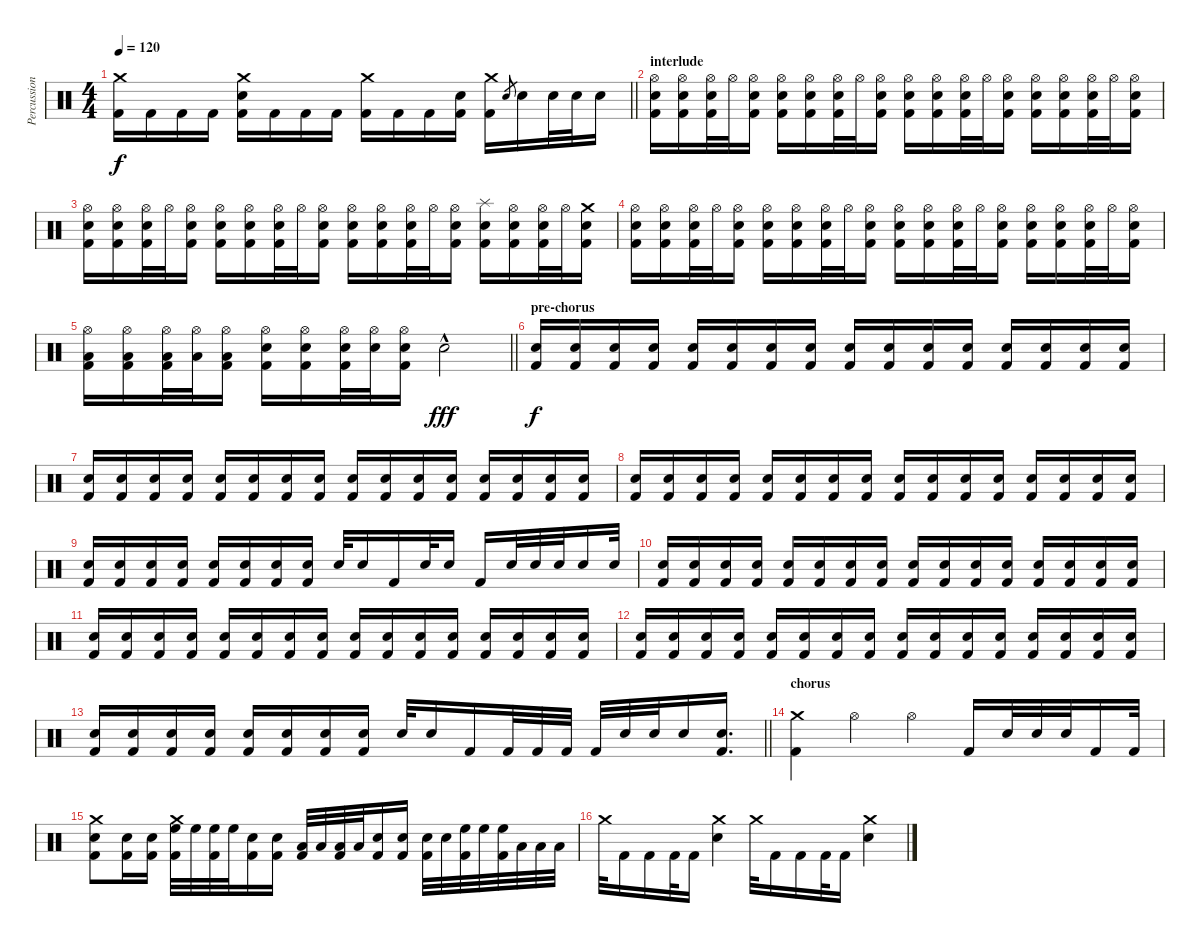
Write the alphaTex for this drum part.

\track ("Percussion" "Percussion") {instrument percussion}
\staff {score}
\articulation defaults
\ts (4 4)
\tempo 120
\clef neutral
\barLineRight lightlight
\ks c
("Crash medium (hit)" "Kick (hit) 2").16{dy f} "Kick (hit) 2".16 "Kick (hit) 2".16 "Kick (hit) 2".16 ("Crash medium (hit)" "Snare (hit) 2" "Kick (hit) 2").16 "Kick (hit) 2".16 "Kick (hit) 2".16 "Kick (hit) 2".16 ("Crash medium (hit)" "Kick (hit) 2").16 "Kick (hit) 2".16 "Kick (hit) 2".16 ("Snare (hit) 2" "Kick (hit) 2").16 ("Crash medium (hit)" "Kick (hit) 2").16 "Snare (hit) 2".8{gr} "Snare (hit) 2".16 "Snare (hit) 2".32 "Snare (hit) 2".32 "Snare (hit) 2".16 |
\section ("" "interlude")
("Hi-Hat (open)" "Snare (hit) 2" "Kick (hit) 2").16 ("Hi-Hat (open)" "Snare (hit) 2" "Kick (hit) 2").16 ("Hi-Hat (open)" "Snare (hit) 2" "Kick (hit) 2").32 "Hi-Hat (open)".32 ("Hi-Hat (open)" "Snare (hit) 2" "Kick (hit) 2").16 ("Hi-Hat (open)" "Snare (hit) 2" "Kick (hit) 2").16 ("Hi-Hat (open)" "Snare (hit) 2" "Kick (hit) 2").16 ("Hi-Hat (open)" "Snare (hit) 2" "Kick (hit) 2").32 "Hi-Hat (open)".32 ("Hi-Hat (open)" "Snare (hit) 2" "Kick (hit) 2").16 ("Hi-Hat (open)" "Snare (hit) 2" "Kick (hit) 2").16 ("Hi-Hat (open)" "Snare (hit) 2" "Kick (hit) 2").16 ("Hi-Hat (open)" "Snare (hit) 2" "Kick (hit) 2").32 "Hi-Hat (open)".32 ("Hi-Hat (open)" "Snare (hit) 2" "Kick (hit) 2").16 ("Hi-Hat (open)" "Snare (hit) 2" "Kick (hit) 2").16 ("Hi-Hat (open)" "Snare (hit) 2" "Kick (hit) 2").16 ("Hi-Hat (open)" "Snare (hit) 2" "Kick (hit) 2").32 "Hi-Hat (open)".32 ("Hi-Hat (open)" "Snare (hit) 2" "Kick (hit) 2").16 |
("Hi-Hat (open)" "Snare (hit) 2" "Kick (hit) 2").16 ("Hi-Hat (open)" "Snare (hit) 2" "Kick (hit) 2").16 ("Hi-Hat (open)" "Snare (hit) 2" "Kick (hit) 2").32 "Hi-Hat (open)".32 ("Hi-Hat (open)" "Snare (hit) 2" "Kick (hit) 2").16 ("Hi-Hat (open)" "Snare (hit) 2" "Kick (hit) 2").16 ("Hi-Hat (open)" "Snare (hit) 2" "Kick (hit) 2").16 ("Hi-Hat (open)" "Snare (hit) 2" "Kick (hit) 2").32 "Hi-Hat (open)".32 ("Hi-Hat (open)" "Snare (hit) 2" "Kick (hit) 2").16 ("Hi-Hat (open)" "Snare (hit) 2" "Kick (hit) 2").16 ("Hi-Hat (open)" "Snare (hit) 2" "Kick (hit) 2").16 ("Hi-Hat (open)" "Snare (hit) 2" "Kick (hit) 2").32 "Hi-Hat (open)".32 ("Hi-Hat (open)" "Snare (hit) 2" "Kick (hit) 2").16 ("Splash (hit)" "Snare (hit) 2" "Kick (hit) 2").16 ("Hi-Hat (open)" "Snare (hit) 2" "Kick (hit) 2").16 ("Hi-Hat (open)" "Snare (hit) 2" "Kick (hit) 2").32 "Hi-Hat (open)".32 ("Crash medium (hit)" "Snare (hit) 2" "Kick (hit) 2").16 |
("Hi-Hat (open)" "Snare (hit) 2" "Kick (hit) 2").16 ("Hi-Hat (open)" "Snare (hit) 2" "Kick (hit) 2").16 ("Hi-Hat (open)" "Snare (hit) 2" "Kick (hit) 2").32 "Hi-Hat (open)".32 ("Hi-Hat (open)" "Snare (hit) 2" "Kick (hit) 2").16 ("Hi-Hat (open)" "Snare (hit) 2" "Kick (hit) 2").16 ("Hi-Hat (open)" "Snare (hit) 2" "Kick (hit) 2").16 ("Hi-Hat (open)" "Snare (hit) 2" "Kick (hit) 2").32 "Hi-Hat (open)".32 ("Hi-Hat (open)" "Snare (hit) 2" "Kick (hit) 2").16 ("Hi-Hat (open)" "Snare (hit) 2" "Kick (hit) 2").16 ("Hi-Hat (open)" "Snare (hit) 2" "Kick (hit) 2").16 ("Hi-Hat (open)" "Snare (hit) 2" "Kick (hit) 2").32 "Hi-Hat (open)".32 ("Hi-Hat (open)" "Snare (hit) 2" "Kick (hit) 2").16 ("Hi-Hat (open)" "Snare (hit) 2" "Kick (hit) 2").16 ("Hi-Hat (open)" "Snare (hit) 2" "Kick (hit) 2").16 ("Hi-Hat (open)" "Snare (hit) 2" "Kick (hit) 2").32 "Hi-Hat (open)".32 ("Hi-Hat (open)" "Snare (hit) 2" "Kick (hit) 2").16 |
\barLineRight lightlight
("Hi-Hat (open)" "Low Tom (hit)" "Kick (hit) 2").16 ("Hi-Hat (open)" "Low Tom (hit)" "Kick (hit) 2").16 ("Hi-Hat (open)" "Low Tom (hit)" "Kick (hit) 2").32 ("Hi-Hat (open)" "Low Tom (hit)").32 ("Hi-Hat (open)" "Low Tom (hit)" "Kick (hit) 2").16 ("Hi-Hat (open)" "Snare (hit) 2" "Kick (hit) 2").16 ("Hi-Hat (open)" "Snare (hit) 2" "Kick (hit) 2").16 ("Hi-Hat (open)" "Snare (hit) 2" "Kick (hit) 2").32 ("Hi-Hat (open)" "Snare (hit) 2").32 ("Hi-Hat (open)" "Snare (hit) 2" "Kick (hit) 2").16 "Snare (hit) 2"{hac}.2{dy fff} |
\section ("" "pre-chorus")
("Snare (hit) 2" "Kick (hit) 2").16{dy f} ("Snare (hit) 2" "Kick (hit) 2").16 ("Snare (hit) 2" "Kick (hit) 2").16 ("Snare (hit) 2" "Kick (hit) 2").16 ("Snare (hit) 2" "Kick (hit) 2").16 ("Snare (hit) 2" "Kick (hit) 2").16 ("Snare (hit) 2" "Kick (hit) 2").16 ("Snare (hit) 2" "Kick (hit) 2").16 ("Snare (hit) 2" "Kick (hit) 2").16 ("Snare (hit) 2" "Kick (hit) 2").16 ("Snare (hit) 2" "Kick (hit) 2").16 ("Snare (hit) 2" "Kick (hit) 2").16 ("Snare (hit) 2" "Kick (hit) 2").16 ("Snare (hit) 2" "Kick (hit) 2").16 ("Snare (hit) 2" "Kick (hit) 2").16 ("Snare (hit) 2" "Kick (hit) 2").16 |
("Snare (hit) 2" "Kick (hit) 2").16 ("Snare (hit) 2" "Kick (hit) 2").16 ("Snare (hit) 2" "Kick (hit) 2").16 ("Snare (hit) 2" "Kick (hit) 2").16 ("Snare (hit) 2" "Kick (hit) 2").16 ("Snare (hit) 2" "Kick (hit) 2").16 ("Snare (hit) 2" "Kick (hit) 2").16 ("Snare (hit) 2" "Kick (hit) 2").16 ("Snare (hit) 2" "Kick (hit) 2").16 ("Snare (hit) 2" "Kick (hit) 2").16 ("Snare (hit) 2" "Kick (hit) 2").16 ("Snare (hit) 2" "Kick (hit) 2").16 ("Snare (hit) 2" "Kick (hit) 2").16 ("Snare (hit) 2" "Kick (hit) 2").16 ("Snare (hit) 2" "Kick (hit) 2").16 ("Snare (hit) 2" "Kick (hit) 2").16 |
("Snare (hit) 2" "Kick (hit) 2").16 ("Snare (hit) 2" "Kick (hit) 2").16 ("Snare (hit) 2" "Kick (hit) 2").16 ("Snare (hit) 2" "Kick (hit) 2").16 ("Snare (hit) 2" "Kick (hit) 2").16 ("Snare (hit) 2" "Kick (hit) 2").16 ("Snare (hit) 2" "Kick (hit) 2").16 ("Snare (hit) 2" "Kick (hit) 2").16 ("Snare (hit) 2" "Kick (hit) 2").16 ("Snare (hit) 2" "Kick (hit) 2").16 ("Snare (hit) 2" "Kick (hit) 2").16 ("Snare (hit) 2" "Kick (hit) 2").16 ("Snare (hit) 2" "Kick (hit) 2").16 ("Snare (hit) 2" "Kick (hit) 2").16 ("Snare (hit) 2" "Kick (hit) 2").16 ("Snare (hit) 2" "Kick (hit) 2").16 |
("Snare (hit) 2" "Kick (hit) 2").16 ("Snare (hit) 2" "Kick (hit) 2").16 ("Snare (hit) 2" "Kick (hit) 2").16 ("Snare (hit) 2" "Kick (hit) 2").16 ("Snare (hit) 2" "Kick (hit) 2").16 ("Snare (hit) 2" "Kick (hit) 2").16 ("Snare (hit) 2" "Kick (hit) 2").16 ("Snare (hit) 2" "Kick (hit) 2").16 "Snare (hit) 2".32 "Snare (hit) 2".16 "Kick (hit) 2".16 "Snare (hit) 2".32 "Snare (hit) 2".16 "Kick (hit) 2".16 "Snare (hit) 2".32 "Snare (hit) 2".32 "Snare (hit) 2".32 "Snare (hit) 2".16 "Snare (hit) 2".32 |
("Snare (hit) 2" "Kick (hit) 2").16 ("Snare (hit) 2" "Kick (hit) 2").16 ("Snare (hit) 2" "Kick (hit) 2").16 ("Snare (hit) 2" "Kick (hit) 2").16 ("Snare (hit) 2" "Kick (hit) 2").16 ("Snare (hit) 2" "Kick (hit) 2").16 ("Snare (hit) 2" "Kick (hit) 2").16 ("Snare (hit) 2" "Kick (hit) 2").16 ("Snare (hit) 2" "Kick (hit) 2").16 ("Snare (hit) 2" "Kick (hit) 2").16 ("Snare (hit) 2" "Kick (hit) 2").16 ("Snare (hit) 2" "Kick (hit) 2").16 ("Snare (hit) 2" "Kick (hit) 2").16 ("Snare (hit) 2" "Kick (hit) 2").16 ("Snare (hit) 2" "Kick (hit) 2").16 ("Snare (hit) 2" "Kick (hit) 2").16 |
("Snare (hit) 2" "Kick (hit) 2").16 ("Snare (hit) 2" "Kick (hit) 2").16 ("Snare (hit) 2" "Kick (hit) 2").16 ("Snare (hit) 2" "Kick (hit) 2").16 ("Snare (hit) 2" "Kick (hit) 2").16 ("Snare (hit) 2" "Kick (hit) 2").16 ("Snare (hit) 2" "Kick (hit) 2").16 ("Snare (hit) 2" "Kick (hit) 2").16 ("Snare (hit) 2" "Kick (hit) 2").16 ("Snare (hit) 2" "Kick (hit) 2").16 ("Snare (hit) 2" "Kick (hit) 2").16 ("Snare (hit) 2" "Kick (hit) 2").16 ("Snare (hit) 2" "Kick (hit) 2").16 ("Snare (hit) 2" "Kick (hit) 2").16 ("Snare (hit) 2" "Kick (hit) 2").16 ("Snare (hit) 2" "Kick (hit) 2").16 |
("Snare (hit) 2" "Kick (hit) 2").16 ("Snare (hit) 2" "Kick (hit) 2").16 ("Snare (hit) 2" "Kick (hit) 2").16 ("Snare (hit) 2" "Kick (hit) 2").16 ("Snare (hit) 2" "Kick (hit) 2").16 ("Snare (hit) 2" "Kick (hit) 2").16 ("Snare (hit) 2" "Kick (hit) 2").16 ("Snare (hit) 2" "Kick (hit) 2").16 ("Snare (hit) 2" "Kick (hit) 2").16 ("Snare (hit) 2" "Kick (hit) 2").16 ("Snare (hit) 2" "Kick (hit) 2").16 ("Snare (hit) 2" "Kick (hit) 2").16 ("Snare (hit) 2" "Kick (hit) 2").16 ("Snare (hit) 2" "Kick (hit) 2").16 ("Snare (hit) 2" "Kick (hit) 2").16 ("Snare (hit) 2" "Kick (hit) 2").16 |
\barLineRight lightlight
("Snare (hit) 2" "Kick (hit) 2").16 ("Snare (hit) 2" "Kick (hit) 2").16 ("Snare (hit) 2" "Kick (hit) 2").16 ("Snare (hit) 2" "Kick (hit) 2").16 ("Snare (hit) 2" "Kick (hit) 2").16 ("Snare (hit) 2" "Kick (hit) 2").16 ("Snare (hit) 2" "Kick (hit) 2").16 ("Snare (hit) 2" "Kick (hit) 2").16 "Snare (hit) 2".32 "Snare (hit) 2".16 "Kick (hit) 2".16 "Kick (hit) 2".32 "Kick (hit) 2".32 "Kick (hit) 2".32 "Kick (hit) 2".32 "Snare (hit) 2".32 "Snare (hit) 2".32 "Snare (hit) 2".16 ("Snare (hit) 2" "Kick (hit) 2").16{d} |
\section ("" "chorus")
("Crash medium (hit)" "Kick (hit) 2").4 "Hi-Hat (open)".4 "Hi-Hat (open)".4 "Kick (hit) 2".16 "Snare (hit) 2".32 "Snare (hit) 2".32 "Snare (hit) 2".32 "Kick (hit) 2".16 "Kick (hit) 2".32 |
("Crash medium (hit)" "Snare (hit) 2" "Kick (hit) 2").8 ("Snare (hit) 2" "Kick (hit) 2").16 ("Snare (hit) 2" "Kick (hit) 2").16 ("Crash medium (hit)" "High Floor Tom (hit)" "Kick (hit) 2").32 "High Floor Tom (hit)".32 ("High Floor Tom (hit)" "Kick (hit) 2").32 "High Floor Tom (hit)".32 ("Snare (hit) 2" "Kick (hit) 2").16 ("Snare (hit) 2" "Kick (hit) 2").16 ("Low Tom (hit)" "Kick (hit) 2").32 "Low Tom (hit)".32 ("Low Tom (hit)" "Kick (hit) 2").32 "Low Tom (hit)".32 ("Snare (hit) 2" "Kick (hit) 2").16 ("Snare (hit) 2" "Kick (hit) 2").16 ("Snare (hit) 2" "Kick (hit) 2").32 "Snare (hit) 2".32 ("High Floor Tom (hit)" "Kick (hit) 2").32 "High Floor Tom (hit)".32 ("High Floor Tom (hit)" "Kick (hit) 2").32 "Low Tom (hit)".32 "Low Tom (hit)".32 "Low Tom (hit)".32 |
"Crash medium (hit)".32 "Kick (hit) 2".16 "Kick (hit) 2".16 "Kick (hit) 2".32 "Kick (hit) 2".16 ("Crash medium (hit)" "Snare (hit) 2").4 "Crash medium (hit)".32 "Kick (hit) 2".16 "Kick (hit) 2".16 "Kick (hit) 2".32 "Kick (hit) 2".16 ("Crash medium (hit)" "Snare (hit) 2").4
